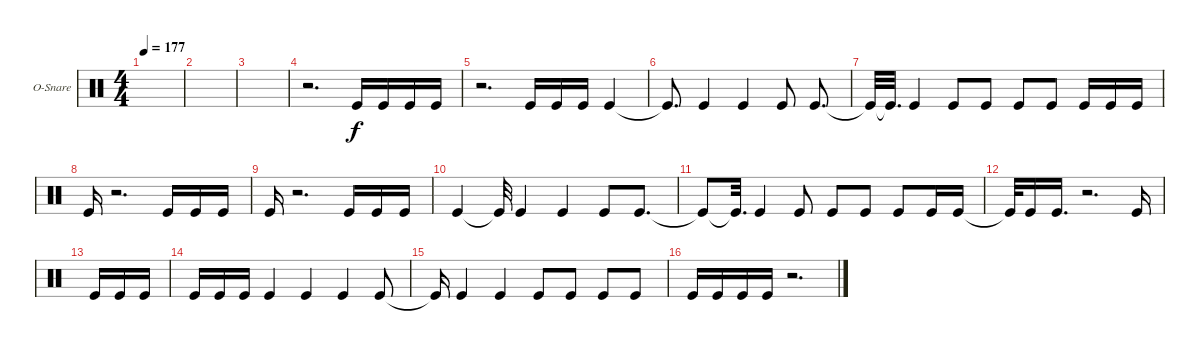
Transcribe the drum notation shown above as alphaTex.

\defaultSystemsLayout 4
\bracketExtendMode groupsimilarinstruments
\firstSystemTrackNameOrientation horizontal
\otherSystemsTrackNameOrientation horizontal
\track ("Johnny Kelly" "O-Snare") {instrument percussion}
\staff {score}
\articulation defaults
\ts (4 4)
\tempo 177
\clef neutral
\ks c
|
|
|
r.2{d} "Kick (hit)".16 "Kick (hit)".16 "Kick (hit)".16 "Kick (hit)".16 |
r.2{d} "Kick (hit)".16 "Kick (hit)".16 "Kick (hit)".16 "Kick (hit)".4 |
"Kick (hit)"{t}.8{d} "Kick (hit)".4 "Kick (hit)".4 "Kick (hit)".8 "Kick (hit)".8{d} |
"Kick (hit)"{t}.32 "Kick (hit)"{t}.32{d} "Kick (hit)".4 "Kick (hit)".8 "Kick (hit)".8 "Kick (hit)".8 "Kick (hit)".8 "Kick (hit)".16 "Kick (hit)".16 "Kick (hit)".16 |
"Kick (hit)".16 r.2{d} "Kick (hit)".16 "Kick (hit)".16 "Kick (hit)".16 |
\scale
0.251244 "Kick (hit)".16 r.2{d} "Kick (hit)".16 "Kick (hit)".16 "Kick (hit)".16 |
\scale
0.374793 "Kick (hit)".4 "Kick (hit)"{t}.32 "Kick (hit)".4 "Kick (hit)".4 "Kick (hit)".8 "Kick (hit)".8{d} |
\scale
0.175729 "Kick (hit)"{t}.8 "Kick (hit)"{t}.32{d} "Kick (hit)".4 "Kick (hit)".8 "Kick (hit)".8 "Kick (hit)".8 "Kick (hit)".8 "Kick (hit)".16 "Kick (hit)".16 |
\scale
0.195025 "Kick (hit)"{t}.32 "Kick (hit)".16 "Kick (hit)".16{d} r.2{d} "Kick (hit)".16 |
"Kick (hit)".16 "Kick (hit)".16 "Kick (hit)".16 |
"Kick (hit)".16 "Kick (hit)".16 "Kick (hit)".16 "Kick (hit)".4 "Kick (hit)".4 "Kick (hit)".4 "Kick (hit)".8 |
"Kick (hit)"{t}.16 "Kick (hit)".4 "Kick (hit)".4 "Kick (hit)".8 "Kick (hit)".8 "Kick (hit)".8 "Kick (hit)".8 |
"Kick (hit)".16 "Kick (hit)".16 "Kick (hit)".16 "Kick (hit)".16 r.2{d}
